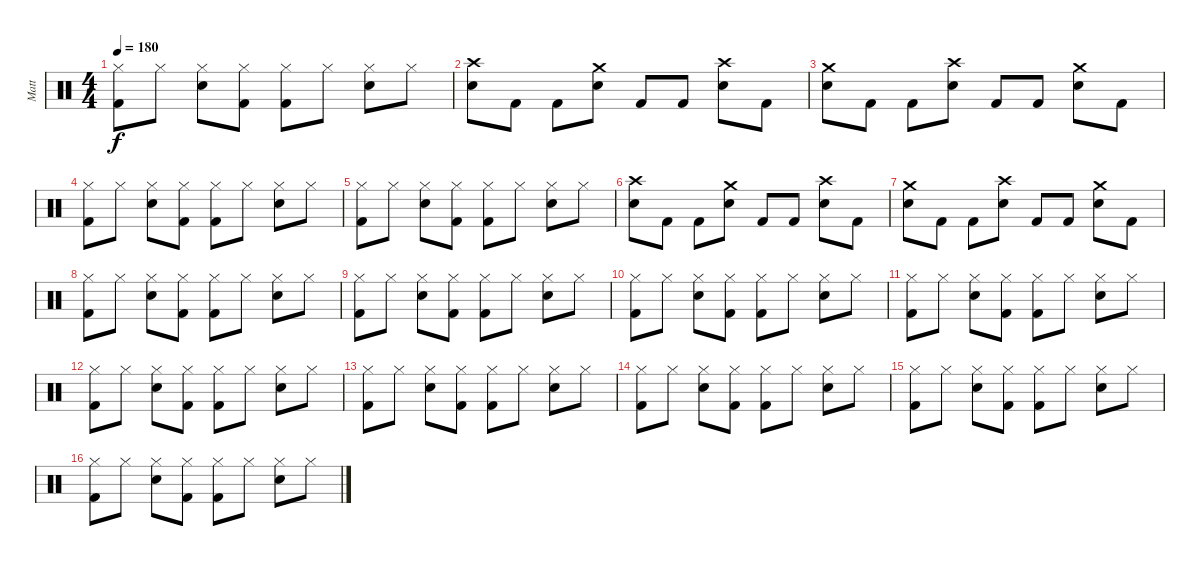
\track ("Matt" "Matt") {instrument percussion}
\staff {score}
\articulation defaults
\ts (4 4)
\tempo 180
\clef neutral
\ks c
("Hi-Hat (closed)" "Kick (hit) 2").8{dy f} "Hi-Hat (closed)".8 ("Hi-Hat (closed)" "Snare (hit) 2").8 ("Hi-Hat (closed)" "Kick (hit) 2").8 ("Hi-Hat (closed)" "Kick (hit) 2").8 "Hi-Hat (closed)".8 ("Hi-Hat (closed)" "Snare (hit) 2").8 "Hi-Hat (closed)".8 |
("Crash high (hit)" "Snare (hit) 2").8 "Kick (hit) 2".8 "Kick (hit) 2".8 ("Crash medium (hit)" "Snare (hit) 2").8 "Kick (hit) 2".8 "Kick (hit) 2".8 ("Crash high (hit)" "Snare (hit) 2").8 "Kick (hit) 2".8 |
("Crash medium (hit)" "Snare (hit) 2").8 "Kick (hit) 2".8 "Kick (hit) 2".8 ("Crash high (hit)" "Snare (hit) 2").8 "Kick (hit) 2".8 "Kick (hit) 2".8 ("Crash medium (hit)" "Snare (hit) 2").8 "Kick (hit) 2".8 |
("Hi-Hat (closed)" "Kick (hit) 2").8 "Hi-Hat (closed)".8 ("Hi-Hat (closed)" "Snare (hit) 2").8 ("Hi-Hat (closed)" "Kick (hit) 2").8 ("Hi-Hat (closed)" "Kick (hit) 2").8 "Hi-Hat (closed)".8 ("Hi-Hat (closed)" "Snare (hit) 2").8 "Hi-Hat (closed)".8 |
("Hi-Hat (closed)" "Kick (hit) 2").8 "Hi-Hat (closed)".8 ("Hi-Hat (closed)" "Snare (hit) 2").8 ("Hi-Hat (closed)" "Kick (hit) 2").8 ("Hi-Hat (closed)" "Kick (hit) 2").8 "Hi-Hat (closed)".8 ("Hi-Hat (closed)" "Snare (hit) 2").8 "Hi-Hat (closed)".8 |
("Crash high (hit)" "Snare (hit) 2").8 "Kick (hit) 2".8 "Kick (hit) 2".8 ("Crash medium (hit)" "Snare (hit) 2").8 "Kick (hit) 2".8 "Kick (hit) 2".8 ("Crash high (hit)" "Snare (hit) 2").8 "Kick (hit) 2".8 |
("Crash medium (hit)" "Snare (hit) 2").8 "Kick (hit) 2".8 "Kick (hit) 2".8 ("Crash high (hit)" "Snare (hit) 2").8 "Kick (hit) 2".8 "Kick (hit) 2".8 ("Crash medium (hit)" "Snare (hit) 2").8 "Kick (hit) 2".8 |
("Hi-Hat (closed)" "Kick (hit) 2").8 "Hi-Hat (closed)".8 ("Hi-Hat (closed)" "Snare (hit) 2").8 ("Hi-Hat (closed)" "Kick (hit) 2").8 ("Hi-Hat (closed)" "Kick (hit) 2").8 "Hi-Hat (closed)".8 ("Hi-Hat (closed)" "Snare (hit) 2").8 "Hi-Hat (closed)".8 |
("Hi-Hat (closed)" "Kick (hit) 2").8 "Hi-Hat (closed)".8 ("Hi-Hat (closed)" "Snare (hit) 2").8 ("Hi-Hat (closed)" "Kick (hit) 2").8 ("Hi-Hat (closed)" "Kick (hit) 2").8 "Hi-Hat (closed)".8 ("Hi-Hat (closed)" "Snare (hit) 2").8 "Hi-Hat (closed)".8 |
("Hi-Hat (closed)" "Kick (hit) 2").8 "Hi-Hat (closed)".8 ("Hi-Hat (closed)" "Snare (hit) 2").8 ("Hi-Hat (closed)" "Kick (hit) 2").8 ("Hi-Hat (closed)" "Kick (hit) 2").8 "Hi-Hat (closed)".8 ("Hi-Hat (closed)" "Snare (hit) 2").8 "Hi-Hat (closed)".8 |
("Hi-Hat (closed)" "Kick (hit) 2").8 "Hi-Hat (closed)".8 ("Hi-Hat (closed)" "Snare (hit) 2").8 ("Hi-Hat (closed)" "Kick (hit) 2").8 ("Hi-Hat (closed)" "Kick (hit) 2").8 "Hi-Hat (closed)".8 ("Hi-Hat (closed)" "Snare (hit) 2").8 "Hi-Hat (closed)".8 |
("Hi-Hat (closed)" "Kick (hit) 2").8 "Hi-Hat (closed)".8 ("Hi-Hat (closed)" "Snare (hit) 2").8 ("Hi-Hat (closed)" "Kick (hit) 2").8 ("Hi-Hat (closed)" "Kick (hit) 2").8 "Hi-Hat (closed)".8 ("Hi-Hat (closed)" "Snare (hit) 2").8 "Hi-Hat (closed)".8 |
("Hi-Hat (closed)" "Kick (hit) 2").8 "Hi-Hat (closed)".8 ("Hi-Hat (closed)" "Snare (hit) 2").8 ("Hi-Hat (closed)" "Kick (hit) 2").8 ("Hi-Hat (closed)" "Kick (hit) 2").8 "Hi-Hat (closed)".8 ("Hi-Hat (closed)" "Snare (hit) 2").8 "Hi-Hat (closed)".8 |
("Hi-Hat (closed)" "Kick (hit) 2").8 "Hi-Hat (closed)".8 ("Hi-Hat (closed)" "Snare (hit) 2").8 ("Hi-Hat (closed)" "Kick (hit) 2").8 ("Hi-Hat (closed)" "Kick (hit) 2").8 "Hi-Hat (closed)".8 ("Hi-Hat (closed)" "Snare (hit) 2").8 "Hi-Hat (closed)".8 |
("Hi-Hat (closed)" "Kick (hit) 2").8 "Hi-Hat (closed)".8 ("Hi-Hat (closed)" "Snare (hit) 2").8 ("Hi-Hat (closed)" "Kick (hit) 2").8 ("Hi-Hat (closed)" "Kick (hit) 2").8 "Hi-Hat (closed)".8 ("Hi-Hat (closed)" "Snare (hit) 2").8 "Hi-Hat (closed)".8 |
("Hi-Hat (closed)" "Kick (hit) 2").8 "Hi-Hat (closed)".8 ("Hi-Hat (closed)" "Snare (hit) 2").8 ("Hi-Hat (closed)" "Kick (hit) 2").8 ("Hi-Hat (closed)" "Kick (hit) 2").8 "Hi-Hat (closed)".8 ("Hi-Hat (closed)" "Snare (hit) 2").8 "Hi-Hat (closed)".8
